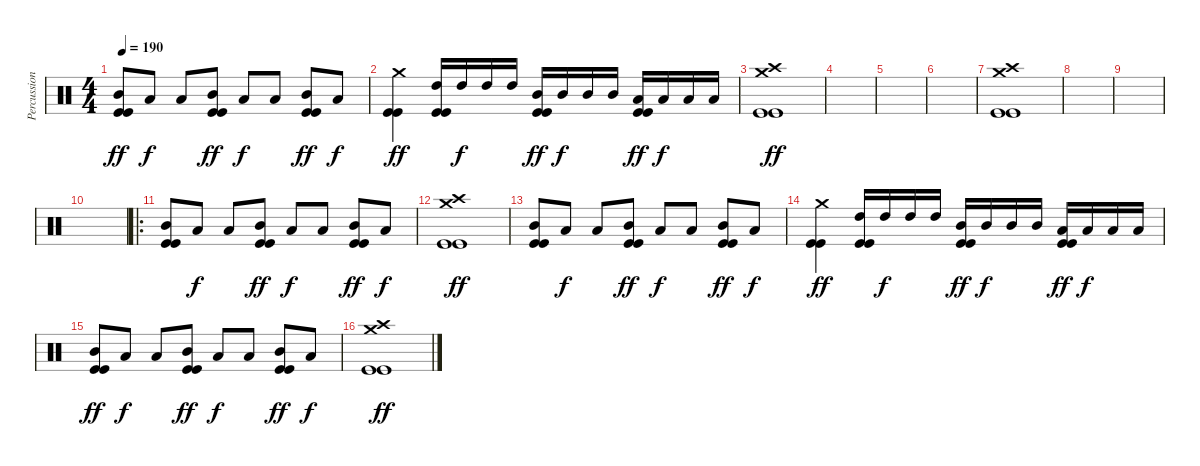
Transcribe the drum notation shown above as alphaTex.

\track ("Percussion" "Percussion") {instrument percussion}
\staff {score}
\articulation defaults
\ts (4 4)
\tempo 190
\clef neutral
\ks c
("Mid Tom (hit)" "Kick (hit)" "Kick (hit)").8{dy ff} "Low Tom (hit)".8{dy f} "Low Tom (hit)".8 ("Mid Tom (hit)" "Kick (hit)" "Kick (hit)").8{dy ff} "Low Tom (hit)".8{dy f} "Low Tom (hit)".8 ("Mid Tom (hit)" "Kick (hit)" "Kick (hit)").8{dy ff} "Low Tom (hit)".8{dy f} |
("Crash medium (hit)" "Kick (hit)" "Kick (hit)").4{dy ff} ("High Tom (hit)" "Kick (hit)" "Kick (hit)").16 "High Tom (hit)".16{dy f} "High Tom (hit)".16 "High Tom (hit)".16 ("Mid Tom (hit)" "Kick (hit)" "Kick (hit)").16{dy ff} "Mid Tom (hit)".16{dy f} "Mid Tom (hit)".16 "Mid Tom (hit)".16 ("Low Tom (hit)" "Kick (hit)" "Kick (hit)").16{dy ff} "Low Tom (hit)".16{dy f} "Low Tom (hit)".16 "Low Tom (hit)".16 |
("Crash high (hit)" "Crash medium (hit)" "Kick (hit)" "Kick (hit)").1{dy ff} |
|
|
|
("Crash high (hit)" "Crash medium (hit)" "Kick (hit)" "Kick (hit)").1 |
|
|
|
\ro
("Mid Tom (hit)" "Kick (hit)" "Kick (hit)").8 "Low Tom (hit)".8{dy f} "Low Tom (hit)".8 ("Mid Tom (hit)" "Kick (hit)" "Kick (hit)").8{dy ff} "Low Tom (hit)".8{dy f} "Low Tom (hit)".8 ("Mid Tom (hit)" "Kick (hit)" "Kick (hit)").8{dy ff} "Low Tom (hit)".8{dy f} |
("Crash high (hit)" "Crash medium (hit)" "Kick (hit)" "Kick (hit)").1{dy ff} |
("Mid Tom (hit)" "Kick (hit)" "Kick (hit)").8 "Low Tom (hit)".8{dy f} "Low Tom (hit)".8 ("Mid Tom (hit)" "Kick (hit)" "Kick (hit)").8{dy ff} "Low Tom (hit)".8{dy f} "Low Tom (hit)".8 ("Mid Tom (hit)" "Kick (hit)" "Kick (hit)").8{dy ff} "Low Tom (hit)".8{dy f} |
("Crash medium (hit)" "Kick (hit)" "Kick (hit)").4{dy ff} ("High Tom (hit)" "Kick (hit)" "Kick (hit)").16 "High Tom (hit)".16{dy f} "High Tom (hit)".16 "High Tom (hit)".16 ("Mid Tom (hit)" "Kick (hit)" "Kick (hit)").16{dy ff} "Mid Tom (hit)".16{dy f} "Mid Tom (hit)".16 "Mid Tom (hit)".16 ("Low Tom (hit)" "Kick (hit)" "Kick (hit)").16{dy ff} "Low Tom (hit)".16{dy f} "Low Tom (hit)".16 "Low Tom (hit)".16 |
("Mid Tom (hit)" "Kick (hit)" "Kick (hit)").8{dy ff} "Low Tom (hit)".8{dy f} "Low Tom (hit)".8 ("Mid Tom (hit)" "Kick (hit)" "Kick (hit)").8{dy ff} "Low Tom (hit)".8{dy f} "Low Tom (hit)".8 ("Mid Tom (hit)" "Kick (hit)" "Kick (hit)").8{dy ff} "Low Tom (hit)".8{dy f} |
("Crash high (hit)" "Crash medium (hit)" "Kick (hit)" "Kick (hit)").1{dy ff}
